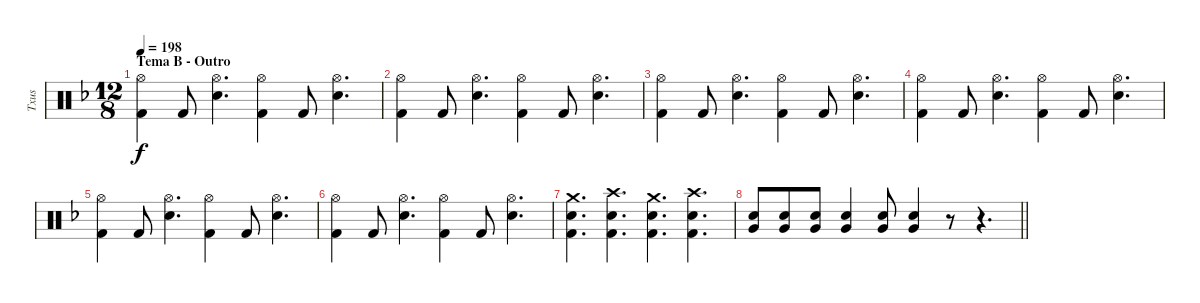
\track ("Txus" "Txus") {instrument percussion}
\staff {score}
\articulation defaults
\ts (12 8)
\section ("" "Tema B - Outro")
\tempo 198
\clef neutral
\ks dminor
("Hi-Hat (open)" "Kick (hit) 2").4{dy f} "Kick (hit) 2".8 ("Hi-Hat (open)" "Snare (hit) 2").4{d} ("Hi-Hat (open)" "Kick (hit) 2").4 "Kick (hit) 2".8 ("Hi-Hat (open)" "Snare (hit) 2").4{d} |
("Hi-Hat (open)" "Kick (hit) 2").4 "Kick (hit) 2".8 ("Hi-Hat (open)" "Snare (hit) 2").4{d} ("Hi-Hat (open)" "Kick (hit) 2").4 "Kick (hit) 2".8 ("Hi-Hat (open)" "Snare (hit) 2").4{d} |
("Hi-Hat (open)" "Kick (hit) 2").4 "Kick (hit) 2".8 ("Hi-Hat (open)" "Snare (hit) 2").4{d} ("Hi-Hat (open)" "Kick (hit) 2").4 "Kick (hit) 2".8 ("Hi-Hat (open)" "Snare (hit) 2").4{d} |
("Hi-Hat (open)" "Kick (hit) 2").4 "Kick (hit) 2".8 ("Hi-Hat (open)" "Snare (hit) 2").4{d} ("Hi-Hat (open)" "Kick (hit) 2").4 "Kick (hit) 2".8 ("Hi-Hat (open)" "Snare (hit) 2").4{d} |
("Hi-Hat (open)" "Kick (hit) 2").4 "Kick (hit) 2".8 ("Hi-Hat (open)" "Snare (hit) 2").4{d} ("Hi-Hat (open)" "Kick (hit) 2").4 "Kick (hit) 2".8 ("Hi-Hat (open)" "Snare (hit) 2").4{d} |
("Hi-Hat (open)" "Kick (hit) 2").4 "Kick (hit) 2".8 ("Hi-Hat (open)" "Snare (hit) 2").4{d} ("Hi-Hat (open)" "Kick (hit) 2").4 "Kick (hit) 2".8 ("Hi-Hat (open)" "Snare (hit) 2").4{d} |
("Crash medium (hit)" "Snare (hit) 2" "Kick (hit) 2").4{d} ("Crash high (hit)" "Snare (hit) 2" "Kick (hit) 2").4{d} ("Crash medium (hit)" "Snare (hit) 2" "Kick (hit) 2").4{d} ("Crash high (hit)" "Snare (hit) 2" "Kick (hit) 2").4{d} |
\barLineRight lightlight
("Very Low Tom (hit)" "Snare (hit) 2").8 ("Very Low Tom (hit)" "Snare (hit) 2").8 ("Very Low Tom (hit)" "Snare (hit) 2").8 ("Very Low Tom (hit)" "Snare (hit) 2").4 ("Very Low Tom (hit)" "Snare (hit) 2").8 ("Very Low Tom (hit)" "Snare (hit) 2").4 r.8 r.4{d}
